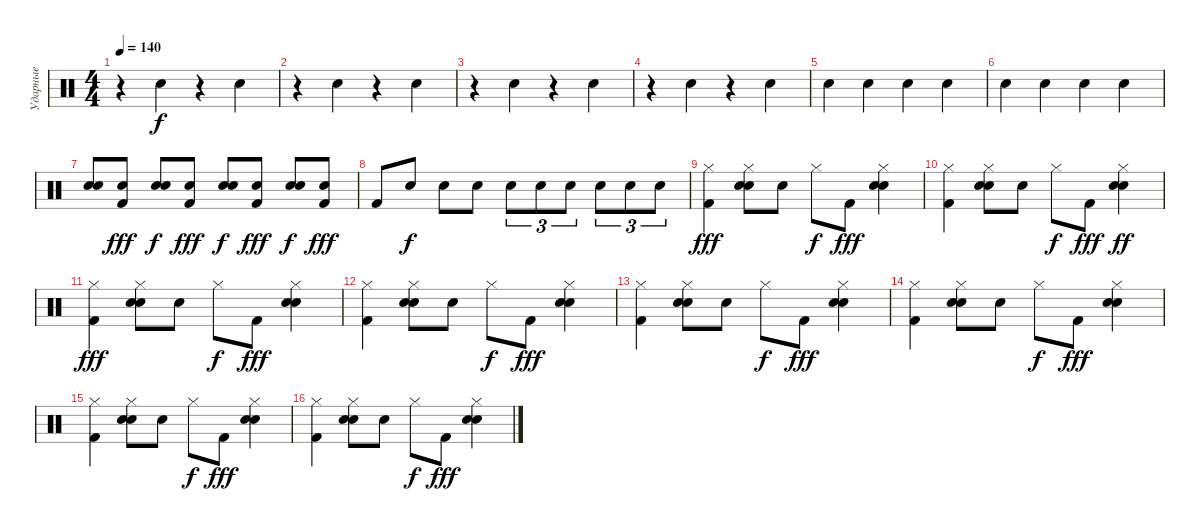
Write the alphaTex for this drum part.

\track ("Ударные" "Ударные") {instrument percussion}
\staff {score}
\articulation defaults
\ts (4 4)
\tempo 140
\clef neutral
\ks c
r.4{dy fff} "Hand Clap (hit)".4{dy f} r.4 "Hand Clap (hit)".4 |
r.4 "Hand Clap (hit)".4 r.4 "Hand Clap (hit)".4 |
r.4 "Hand Clap (hit)".4 r.4 "Hand Clap (hit)".4 |
r.4 "Hand Clap (hit)".4 r.4 "Hand Clap (hit)".4 |
"Hand Clap (hit)".4 "Hand Clap (hit)".4 "Hand Clap (hit)".4 "Hand Clap (hit)".4 |
"Hand Clap (hit)".4 "Hand Clap (hit)".4 "Hand Clap (hit)".4 "Hand Clap (hit)".4 |
("Snare (hit) 2" "Hand Clap (hit)").8 ("Snare (hit) 2" "Kick (hit) 2").8{dy fff} ("Snare (hit) 2" "Hand Clap (hit)").8{dy f} ("Snare (hit) 2" "Kick (hit) 2").8{dy fff} ("Snare (hit) 2" "Hand Clap (hit)").8{dy f} ("Snare (hit) 2" "Kick (hit) 2").8{dy fff} ("Snare (hit) 2" "Hand Clap (hit)").8{dy f} ("Snare (hit) 2" "Kick (hit) 2").8{dy fff} |
"Kick (hit) 2".8 "Snare (hit) 2".8{dy f} "Snare (hit) 2".8 "Snare (hit) 2".8 "Snare (hit) 2".8{tu (3 2)} "Snare (hit) 2".8{tu (3 2)} "Snare (hit) 2".8{tu (3 2)} "Snare (hit) 2".8{tu (3 2)} "Snare (hit) 2".8{tu (3 2)} "Snare (hit) 2".8{tu (3 2)} |
("Hi-Hat (closed)" "Kick (hit) 2").4{dy fff} ("Hi-Hat (closed)" "Hand Clap (hit)" "Snare (hit) 2").8 "Hand Clap (hit)".8 "Hi-Hat (closed)".8{dy f} "Kick (hit) 2".8{dy fff} ("Hi-Hat (closed)" "Hand Clap (hit)" "Snare (hit) 2").4 |
("Hi-Hat (closed)" "Kick (hit) 2").4 ("Hi-Hat (closed)" "Hand Clap (hit)" "Snare (hit) 2").8 "Hand Clap (hit)".8 "Hi-Hat (closed)".8{dy f} "Kick (hit) 2".8{dy fff} ("Hi-Hat (closed)" "Hand Clap (hit)" "Snare (hit) 2").4{dy ff} |
("Hi-Hat (closed)" "Kick (hit) 2").4{dy fff} ("Hi-Hat (closed)" "Hand Clap (hit)" "Snare (hit) 2").8 "Hand Clap (hit)".8 "Hi-Hat (closed)".8{dy f} "Kick (hit) 2".8{dy fff} ("Hi-Hat (closed)" "Hand Clap (hit)" "Snare (hit) 2").4 |
("Hi-Hat (closed)" "Kick (hit) 2").4 ("Hi-Hat (closed)" "Hand Clap (hit)" "Snare (hit) 2").8 "Hand Clap (hit)".8 "Hi-Hat (closed)".8{dy f} "Kick (hit) 2".8{dy fff} ("Hi-Hat (closed)" "Hand Clap (hit)" "Snare (hit) 2").4 |
("Hi-Hat (closed)" "Kick (hit) 2").4 ("Hi-Hat (closed)" "Hand Clap (hit)" "Snare (hit) 2").8 "Hand Clap (hit)".8 "Hi-Hat (closed)".8{dy f} "Kick (hit) 2".8{dy fff} ("Hi-Hat (closed)" "Hand Clap (hit)" "Snare (hit) 2").4 |
("Hi-Hat (closed)" "Kick (hit) 2").4 ("Hi-Hat (closed)" "Hand Clap (hit)" "Snare (hit) 2").8 "Hand Clap (hit)".8 "Hi-Hat (closed)".8{dy f} "Kick (hit) 2".8{dy fff} ("Hi-Hat (closed)" "Hand Clap (hit)" "Snare (hit) 2").4 |
("Hi-Hat (closed)" "Kick (hit) 2").4 ("Hi-Hat (closed)" "Hand Clap (hit)" "Snare (hit) 2").8 "Hand Clap (hit)".8 "Hi-Hat (closed)".8{dy f} "Kick (hit) 2".8{dy fff} ("Hi-Hat (closed)" "Hand Clap (hit)" "Snare (hit) 2").4 |
("Hi-Hat (closed)" "Kick (hit) 2").4 ("Hi-Hat (closed)" "Hand Clap (hit)" "Snare (hit) 2").8 "Hand Clap (hit)".8 "Hi-Hat (closed)".8{dy f} "Kick (hit) 2".8{dy fff} ("Hi-Hat (closed)" "Hand Clap (hit)" "Snare (hit) 2").4
